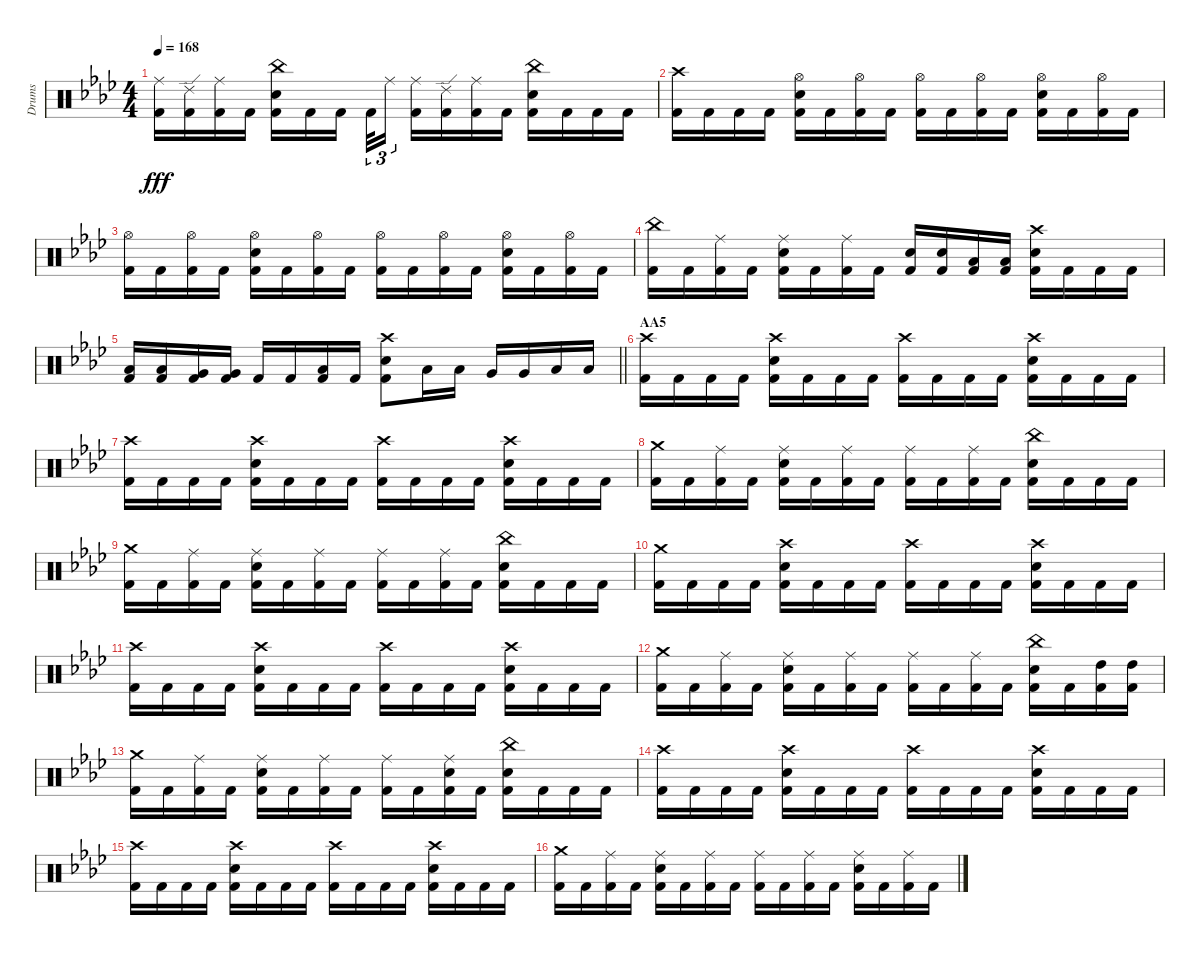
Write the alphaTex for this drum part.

\track ("Drums" "Drums") {instrument percussion}
\staff {score}
\articulation defaults
\ts (4 4)
\tempo 168
\clef neutral
\ks fminor
("Ride (middle)" "Kick (hit) 2").16{dy fff} ("Ride (edge) 2" "Kick (hit) 2").16 ("Ride (middle)" "Kick (hit) 2").16 "Kick (hit) 2".16 ("Snare (hit) 2" "China (hit)" "Kick (hit) 2").16 "Kick (hit) 2".16 "Kick (hit) 2".16{beam splitsecondary} "Kick (hit) 2".32{tu (3 2)} "Ride (middle)".16{tu (3 2)} ("Ride (middle)" "Kick (hit) 2").16 ("Ride (edge) 2" "Kick (hit) 2").16 ("Ride (middle)" "Kick (hit) 2").16 "Kick (hit) 2".16 ("China (hit)" "Snare (hit) 2" "Kick (hit) 2").16 "Kick (hit) 2".16 "Kick (hit) 2".16 "Kick (hit) 2".16 |
("Crash high (hit)" "Kick (hit) 2").16 "Kick (hit) 2".16 "Kick (hit) 2".16 "Kick (hit) 2".16 ("Snare (hit) 2" "Hi-Hat (open)" "Kick (hit) 2").16 "Kick (hit) 2".16 ("Hi-Hat (open)" "Kick (hit) 2").16 "Kick (hit) 2".16 ("Hi-Hat (open)" "Kick (hit) 2").16 "Kick (hit) 2".16 ("Hi-Hat (open)" "Kick (hit) 2").16 "Kick (hit) 2".16 ("Hi-Hat (open)" "Snare (hit) 2" "Kick (hit) 2").16 "Kick (hit) 2".16 ("Hi-Hat (open)" "Kick (hit) 2").16 "Kick (hit) 2".16 |
("Hi-Hat (open)" "Kick (hit) 2").16 "Kick (hit) 2".16 ("Hi-Hat (open)" "Kick (hit) 2").16 "Kick (hit) 2".16 ("Snare (hit) 2" "Hi-Hat (open)" "Kick (hit) 2").16 "Kick (hit) 2".16 ("Hi-Hat (open)" "Kick (hit) 2").16 "Kick (hit) 2".16 ("Hi-Hat (open)" "Kick (hit) 2").16 "Kick (hit) 2".16 ("Hi-Hat (open)" "Kick (hit) 2").16 "Kick (hit) 2".16 ("Hi-Hat (open)" "Snare (hit) 2" "Kick (hit) 2").16 "Kick (hit) 2".16 ("Hi-Hat (open)" "Kick (hit) 2").16 "Kick (hit) 2".16 |
("China (hit)" "Kick (hit) 2").16 "Kick (hit) 2".16 ("Ride (middle)" "Kick (hit) 2").16 "Kick (hit) 2".16 ("Snare (hit) 2" "Ride (middle)" "Kick (hit) 2").16 "Kick (hit) 2".16 ("Ride (middle)" "Kick (hit) 2").16 "Kick (hit) 2".16 ("Snare (hit) 2" "Kick (hit) 2").16 ("Snare (hit) 2" "Kick (hit) 2").16 ("Kick (hit) 2" "Low Tom (hit)").16 ("Kick (hit) 2" "Low Tom (hit)").16 ("Crash high (hit)" "Snare (hit) 2" "Kick (hit) 2").16 "Kick (hit) 2".16 "Kick (hit) 2".16 "Kick (hit) 2".16 |
\barLineRight lightlight
("Kick (hit) 2" "Low Tom (hit)").16 ("Kick (hit) 2" "Low Tom (hit)").16 ("Kick (hit) 2" "Very Low Tom (hit)").16 ("Kick (hit) 2" "Very Low Tom (hit)").16 "Kick (hit) 2".16 "Kick (hit) 2".16 ("Kick (hit) 2" "Low Floor Tom (hit)").16 "Kick (hit) 2".16 ("Crash high (hit)" "Snare (hit) 2" "Kick (hit) 2").8 "Low Tom (hit)".16 "Low Tom (hit)".16 "Very Low Tom (hit)".16 "Very Low Tom (hit)".16 "Low Floor Tom (hit)".16 "Low Floor Tom (hit)".16 |
\section ("" "AA5")
("Crash high (hit)" "Kick (hit) 2").16 "Kick (hit) 2".16 "Kick (hit) 2".16 "Kick (hit) 2".16 ("Snare (hit) 2" "Crash high (hit)" "Kick (hit) 2").16 "Kick (hit) 2".16 "Kick (hit) 2".16 "Kick (hit) 2".16 ("Crash high (hit)" "Kick (hit) 2").16 "Kick (hit) 2".16 "Kick (hit) 2".16 "Kick (hit) 2".16 ("Crash high (hit)" "Snare (hit) 2" "Kick (hit) 2").16 "Kick (hit) 2".16 "Kick (hit) 2".16 "Kick (hit) 2".16 |
("Crash high (hit)" "Kick (hit) 2").16 "Kick (hit) 2".16 "Kick (hit) 2".16 "Kick (hit) 2".16 ("Snare (hit) 2" "Crash high (hit)" "Kick (hit) 2").16 "Kick (hit) 2".16 "Kick (hit) 2".16 "Kick (hit) 2".16 ("Crash high (hit)" "Kick (hit) 2").16 "Kick (hit) 2".16 "Kick (hit) 2".16 "Kick (hit) 2".16 ("Crash high (hit)" "Snare (hit) 2" "Kick (hit) 2").16 "Kick (hit) 2".16 "Kick (hit) 2".16 "Kick (hit) 2".16 |
("Crash medium (hit)" "Kick (hit) 2").16 "Kick (hit) 2".16 ("Ride (middle)" "Kick (hit) 2").16 "Kick (hit) 2".16 ("Snare (hit) 2" "Ride (middle)" "Kick (hit) 2").16 "Kick (hit) 2".16 ("Ride (middle)" "Kick (hit) 2").16 "Kick (hit) 2".16 ("Ride (middle)" "Kick (hit) 2").16 "Kick (hit) 2".16 ("Ride (middle)" "Kick (hit) 2").16 "Kick (hit) 2".16 ("China (hit)" "Snare (hit) 2" "Kick (hit) 2").16 "Kick (hit) 2".16 "Kick (hit) 2".16 "Kick (hit) 2".16 |
("Crash medium (hit)" "Kick (hit) 2").16 "Kick (hit) 2".16 ("Ride (middle)" "Kick (hit) 2").16 "Kick (hit) 2".16 ("Snare (hit) 2" "Ride (middle)" "Kick (hit) 2").16 "Kick (hit) 2".16 ("Ride (middle)" "Kick (hit) 2").16 "Kick (hit) 2".16 ("Ride (middle)" "Kick (hit) 2").16 "Kick (hit) 2".16 ("Ride (middle)" "Kick (hit) 2").16 "Kick (hit) 2".16 ("China (hit)" "Snare (hit) 2" "Kick (hit) 2").16 "Kick (hit) 2".16 "Kick (hit) 2".16 "Kick (hit) 2".16 |
("Crash medium (hit)" "Kick (hit) 2").16 "Kick (hit) 2".16 "Kick (hit) 2".16 "Kick (hit) 2".16 ("Crash high (hit)" "Snare (hit) 2" "Kick (hit) 2").16 "Kick (hit) 2".16 "Kick (hit) 2".16 "Kick (hit) 2".16 ("Crash high (hit)" "Kick (hit) 2").16 "Kick (hit) 2".16 "Kick (hit) 2".16 "Kick (hit) 2".16 ("Crash high (hit)" "Snare (hit) 2" "Kick (hit) 2").16 "Kick (hit) 2".16 "Kick (hit) 2".16 "Kick (hit) 2".16 |
("Crash high (hit)" "Kick (hit) 2").16 "Kick (hit) 2".16 "Kick (hit) 2".16 "Kick (hit) 2".16 ("Crash high (hit)" "Snare (hit) 2" "Kick (hit) 2").16 "Kick (hit) 2".16 "Kick (hit) 2".16 "Kick (hit) 2".16 ("Crash high (hit)" "Kick (hit) 2").16 "Kick (hit) 2".16 "Kick (hit) 2".16 "Kick (hit) 2".16 ("Crash high (hit)" "Snare (hit) 2" "Kick (hit) 2").16 "Kick (hit) 2".16 "Kick (hit) 2".16 "Kick (hit) 2".16 |
("Crash medium (hit)" "Kick (hit) 2").16 "Kick (hit) 2".16 ("Ride (middle)" "Kick (hit) 2").16 "Kick (hit) 2".16 ("Snare (hit) 2" "Ride (middle)" "Kick (hit) 2").16 "Kick (hit) 2".16 ("Ride (middle)" "Kick (hit) 2").16 "Kick (hit) 2".16 ("Ride (middle)" "Kick (hit) 2").16 "Kick (hit) 2".16 ("Ride (middle)" "Kick (hit) 2").16 "Kick (hit) 2".16 ("China (hit)" "Snare (hit) 2" "Kick (hit) 2").16 "Kick (hit) 2".16 ("Kick (hit) 2" "High Tom (hit)").16 ("Kick (hit) 2" "High Tom (hit)").16 |
("Crash medium (hit)" "Kick (hit) 2").16 "Kick (hit) 2".16 ("Ride (middle)" "Kick (hit) 2").16 "Kick (hit) 2".16 ("Snare (hit) 2" "Ride (middle)" "Kick (hit) 2").16 "Kick (hit) 2".16 ("Ride (middle)" "Kick (hit) 2").16 "Kick (hit) 2".16 ("Ride (middle)" "Kick (hit) 2").16 "Kick (hit) 2".16 ("Ride (middle)" "Snare (hit) 2" "Kick (hit) 2").16 "Kick (hit) 2".16 ("Snare (hit) 2" "China (hit)" "Kick (hit) 2").16 "Kick (hit) 2".16 "Kick (hit) 2".16 "Kick (hit) 2".16 |
("Crash high (hit)" "Kick (hit) 2").16 "Kick (hit) 2".16 "Kick (hit) 2".16 "Kick (hit) 2".16 ("Snare (hit) 2" "Crash high (hit)" "Kick (hit) 2").16 "Kick (hit) 2".16 "Kick (hit) 2".16 "Kick (hit) 2".16 ("Crash high (hit)" "Kick (hit) 2").16 "Kick (hit) 2".16 "Kick (hit) 2".16 "Kick (hit) 2".16 ("Snare (hit) 2" "Crash high (hit)" "Kick (hit) 2").16 "Kick (hit) 2".16 "Kick (hit) 2".16 "Kick (hit) 2".16 |
("Crash high (hit)" "Kick (hit) 2").16 "Kick (hit) 2".16 "Kick (hit) 2".16 "Kick (hit) 2".16 ("Crash high (hit)" "Snare (hit) 2" "Kick (hit) 2").16 "Kick (hit) 2".16 "Kick (hit) 2".16 "Kick (hit) 2".16 ("Crash high (hit)" "Kick (hit) 2").16 "Kick (hit) 2".16 "Kick (hit) 2".16 "Kick (hit) 2".16 ("Snare (hit) 2" "Crash high (hit)" "Kick (hit) 2").16 "Kick (hit) 2".16 "Kick (hit) 2".16 "Kick (hit) 2".16 |
("Crash medium (hit)" "Kick (hit) 2").16 "Kick (hit) 2".16 ("Ride (middle)" "Kick (hit) 2").16 "Kick (hit) 2".16 ("Snare (hit) 2" "Ride (middle)" "Kick (hit) 2").16 "Kick (hit) 2".16 ("Ride (middle)" "Kick (hit) 2").16 "Kick (hit) 2".16 ("Ride (middle)" "Kick (hit) 2").16 "Kick (hit) 2".16 ("Ride (middle)" "Kick (hit) 2").16 "Kick (hit) 2".16 ("Ride (middle)" "Snare (hit) 2" "Kick (hit) 2").16 "Kick (hit) 2".16 ("Ride (middle)" "Kick (hit) 2").16 "Kick (hit) 2".16
